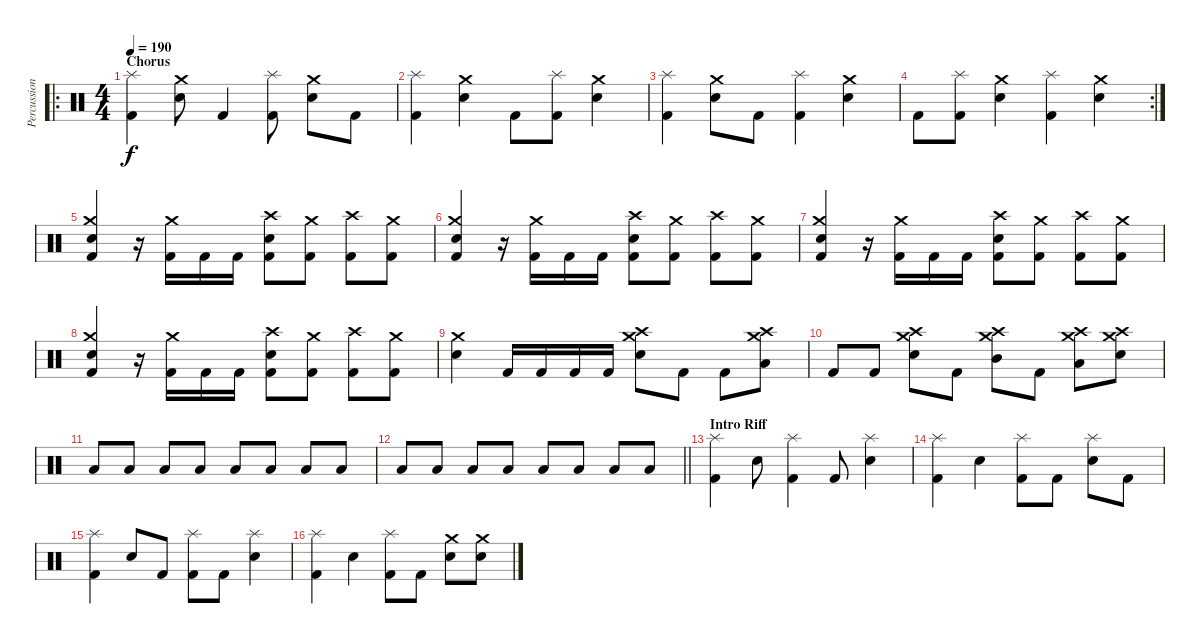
\track ("Percussion" "Percussion") {instrument percussion}
\staff {score}
\articulation defaults
\ro
\ts (4 4)
\section ("" "Chorus")
\tempo 190
\clef neutral
\ks c
("Splash (hit)" "Kick (hit) 2").4{dy f} ("Crash medium (hit)" "Electric Snare (hit)").8 "Kick (hit) 2".4 ("Splash (hit)" "Kick (hit) 2").8 ("Crash medium (hit)" "Electric Snare (hit)").8 "Kick (hit) 2".8 |
("Splash (hit)" "Kick (hit) 2").4 ("Crash medium (hit)" "Electric Snare (hit)").4 "Kick (hit) 2".8 ("Splash (hit)" "Kick (hit) 2").8 ("Crash medium (hit)" "Electric Snare (hit)").4 |
("Splash (hit)" "Kick (hit) 2").4 ("Crash medium (hit)" "Electric Snare (hit)").8 "Kick (hit) 2".8 ("Splash (hit)" "Kick (hit) 2").4 ("Crash medium (hit)" "Electric Snare (hit)").4 |
\rc 2 "Kick (hit) 2".8
("Splash (hit)" "Kick (hit) 2").8 ("Crash medium (hit)" "Electric Snare (hit)").4 ("Splash (hit)" "Kick (hit) 2").4 ("Crash medium (hit)" "Electric Snare (hit)").4 |
("Crash medium (hit)" "Electric Snare (hit)" "Kick (hit) 2").4 r.16 ("Crash medium (hit)" "Kick (hit) 2").16 "Kick (hit) 2".16 "Kick (hit) 2".16 ("Crash high (hit)" "Electric Snare (hit)" "Kick (hit) 2").8 ("Crash medium (hit)" "Kick (hit) 2").8 ("Crash high (hit)" "Kick (hit) 2").8 ("Crash medium (hit)" "Kick (hit) 2").8 |
("Crash medium (hit)" "Electric Snare (hit)" "Kick (hit) 2").4 r.16 ("Crash medium (hit)" "Kick (hit) 2").16 "Kick (hit) 2".16 "Kick (hit) 2".16 ("Crash high (hit)" "Electric Snare (hit)" "Kick (hit) 2").8 ("Crash medium (hit)" "Kick (hit) 2").8 ("Crash high (hit)" "Kick (hit) 2").8 ("Crash medium (hit)" "Kick (hit) 2").8 |
("Crash medium (hit)" "Electric Snare (hit)" "Kick (hit) 2").4 r.16 ("Crash medium (hit)" "Kick (hit) 2").16 "Kick (hit) 2".16 "Kick (hit) 2".16 ("Crash high (hit)" "Electric Snare (hit)" "Kick (hit) 2").8 ("Crash medium (hit)" "Kick (hit) 2").8 ("Crash high (hit)" "Kick (hit) 2").8 ("Crash medium (hit)" "Kick (hit) 2").8 |
("Crash medium (hit)" "Electric Snare (hit)" "Kick (hit) 2").4 r.16 ("Crash medium (hit)" "Kick (hit) 2").16 "Kick (hit) 2".16 "Kick (hit) 2".16 ("Crash high (hit)" "Electric Snare (hit)" "Kick (hit) 2").8 ("Crash medium (hit)" "Kick (hit) 2").8 ("Crash high (hit)" "Kick (hit) 2").8 ("Crash medium (hit)" "Kick (hit) 2").8 |
("Crash medium (hit)" "Electric Snare (hit)").4 "Kick (hit) 2".16 "Kick (hit) 2".16 "Kick (hit) 2".16 "Kick (hit) 2".16 ("Crash high (hit)" "Crash medium (hit)" "Electric Snare (hit)").8 "Kick (hit) 2".8 "Kick (hit) 2".8 ("Crash high (hit)" "Crash medium (hit)" "Low Tom (hit)").8 |
"Kick (hit) 2".8 "Kick (hit) 2".8 ("Crash high (hit)" "Crash medium (hit)" "Electric Snare (hit)").8 "Kick (hit) 2".8 ("Crash high (hit)" "Crash medium (hit)" "Mid Tom (hit)").8 "Kick (hit) 2".8 ("Crash high (hit)" "Crash medium (hit)" "Low Tom (hit)").8 ("Crash high (hit)" "Crash medium (hit)" "Electric Snare (hit)").8 |
"Low Tom (hit)".8 "Low Tom (hit)".8 "Low Tom (hit)".8 "Low Tom (hit)".8 "Low Tom (hit)".8 "Low Tom (hit)".8 "Low Tom (hit)".8 "Low Tom (hit)".8 |
\barLineRight lightlight "Low Tom (hit)".8 "Low Tom (hit)".8 "Low Tom (hit)".8 "Low Tom (hit)".8 "Low Tom (hit)".8 "Low Tom (hit)".8 "Low Tom (hit)".8 "Low Tom (hit)".8
|
\section ("" "Intro Riff")
("Splash (hit)" "Kick (hit) 2").4 "Electric Snare (hit)".8 ("Splash (hit)" "Kick (hit) 2").4 "Kick (hit) 2".8 ("Splash (hit)" "Electric Snare (hit)").4 |
("Splash (hit)" "Kick (hit) 2").4 "Electric Snare (hit)".4 ("Splash (hit)" "Kick (hit) 2").8 "Kick (hit) 2".8 ("Splash (hit)" "Electric Snare (hit)").8 "Kick (hit) 2".8 |
("Splash (hit)" "Kick (hit) 2").4 "Electric Snare (hit)".8 "Kick (hit) 2".8 ("Splash (hit)" "Kick (hit) 2").8 "Kick (hit) 2".8 ("Splash (hit)" "Electric Snare (hit)").4 |
("Splash (hit)" "Kick (hit) 2").4 "Electric Snare (hit)".4 ("Splash (hit)" "Kick (hit) 2").8 "Kick (hit) 2".8 ("Crash medium (hit)" "Electric Snare (hit)").8 ("Crash medium (hit)" "Electric Snare (hit)").8
